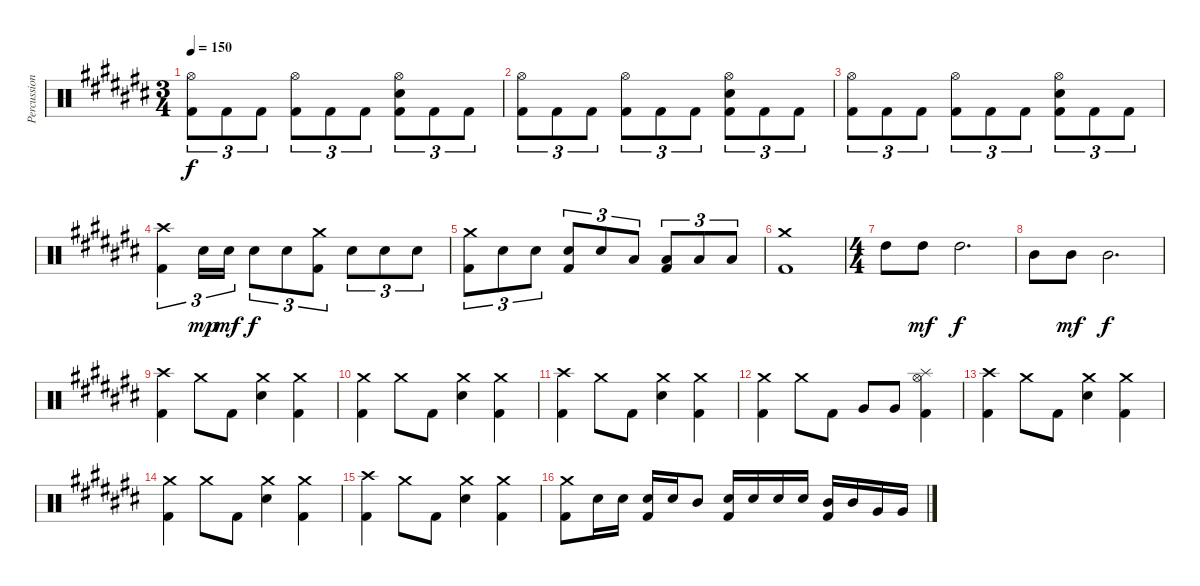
\track ("Percussion" "Percussion") {instrument percussion}
\staff {score}
\articulation defaults
\ts (3 4)
\tempo 150
\clef neutral
\ks c#
("Hi-Hat (open)" "Kick (hit) 2").8{tu (3 2) dy f} "Kick (hit) 2".8{tu (3 2)} "Kick (hit) 2".8{tu (3 2)} ("Hi-Hat (open)" "Kick (hit) 2").8{tu (3 2)} "Kick (hit) 2".8{tu (3 2)} "Kick (hit) 2".8{tu (3 2)} ("Hi-Hat (open)" "Electric Snare (hit)" "Kick (hit) 2").8{tu (3 2)} "Kick (hit) 2".8{tu (3 2)} "Kick (hit) 2".8{tu (3 2)} |
("Hi-Hat (open)" "Kick (hit) 2").8{tu (3 2)} "Kick (hit) 2".8{tu (3 2)} "Kick (hit) 2".8{tu (3 2)} ("Hi-Hat (open)" "Kick (hit) 2").8{tu (3 2)} "Kick (hit) 2".8{tu (3 2)} "Kick (hit) 2".8{tu (3 2)} ("Hi-Hat (open)" "Electric Snare (hit)" "Kick (hit) 2").8{tu (3 2)} "Kick (hit) 2".8{tu (3 2)} "Kick (hit) 2".8{tu (3 2)} |
("Hi-Hat (open)" "Kick (hit) 2").8{tu (3 2)} "Kick (hit) 2".8{tu (3 2)} "Kick (hit) 2".8{tu (3 2)} ("Hi-Hat (open)" "Kick (hit) 2").8{tu (3 2)} "Kick (hit) 2".8{tu (3 2)} "Kick (hit) 2".8{tu (3 2)} ("Hi-Hat (open)" "Electric Snare (hit)" "Kick (hit) 2").8{tu (3 2)} "Kick (hit) 2".8{tu (3 2)} "Kick (hit) 2".8{tu (3 2)} |
("Crash high (hit)" "Kick (hit) 2").4{tu (3 2)} "Electric Snare (hit)".16{tu (3 2) dy mp} "Electric Snare (hit)".16{tu (3 2) dy mf} "Electric Snare (hit)".8{tu (3 2) dy f} "Electric Snare (hit)".8{tu (3 2)} ("Crash medium (hit)" "Kick (hit) 2").8{tu (3 2)} "Electric Snare (hit)".8{tu (3 2)} "Electric Snare (hit)".8{tu (3 2)} "Electric Snare (hit)".8{tu (3 2)} |
("Crash medium (hit)" "Kick (hit) 2").8{tu (3 2)} "Electric Snare (hit)".8{tu (3 2)} "Electric Snare (hit)".8{tu (3 2)} ("Electric Snare (hit)" "Kick (hit) 2").8{tu (3 2)} "Electric Snare (hit)".8{tu (3 2)} "Low Tom (hit)".8{tu (3 2)} ("Low Tom (hit)" "Kick (hit) 2").8{tu (3 2)} "Low Floor Tom (hit)".8{tu (3 2)} "Low Floor Tom (hit)".8{tu (3 2)} |
("Crash medium (hit)" "Kick (hit) 2").1 |
\ts (4 4)
"High Tom (hit)".8 "High Tom (hit)".8{dy mf} "High Tom (hit)".2{d dy f} |
"Mid Tom (hit)".8 "Mid Tom (hit)".8{dy mf} "Mid Tom (hit)".2{d dy f} |
("Crash high (hit)" "Kick (hit) 2").4 "Crash medium (hit)".8 "Kick (hit) 2".8 ("Crash medium (hit)" "Electric Snare (hit)").4 ("Crash medium (hit)" "Kick (hit) 2").4 |
("Crash medium (hit)" "Kick (hit) 2").4 "Crash medium (hit)".8 "Kick (hit) 2".8 ("Crash medium (hit)" "Electric Snare (hit)").4 ("Crash medium (hit)" "Kick (hit) 2").4 |
("Crash high (hit)" "Kick (hit) 2").4 "Crash medium (hit)".8 "Kick (hit) 2".8 ("Crash medium (hit)" "Electric Snare (hit)").4 ("Crash medium (hit)" "Kick (hit) 2").4 |
("Crash medium (hit)" "Kick (hit) 2").4 "Crash medium (hit)".8 "Kick (hit) 2".8 "Very Low Tom (hit)".8 "Very Low Tom (hit)".8 ("Splash (hit)" "Hi-Hat (open)" "Kick (hit) 2").4 |
("Crash high (hit)" "Kick (hit) 2").4 "Crash medium (hit)".8 "Kick (hit) 2".8 ("Crash medium (hit)" "Electric Snare (hit)").4 ("Crash medium (hit)" "Kick (hit) 2").4 |
("Crash medium (hit)" "Kick (hit) 2").4 "Crash medium (hit)".8 "Kick (hit) 2".8 ("Crash medium (hit)" "Electric Snare (hit)").4 ("Crash medium (hit)" "Kick (hit) 2").4 |
("Crash high (hit)" "Kick (hit) 2").4 "Crash medium (hit)".8 "Kick (hit) 2".8 ("Crash medium (hit)" "Electric Snare (hit)").4 ("Crash medium (hit)" "Kick (hit) 2").4 |
("Crash medium (hit)" "Kick (hit) 2").8 "Electric Snare (hit)".16 "Electric Snare (hit)".16 ("Electric Snare (hit)" "Kick (hit) 2").16 "Electric Snare (hit)".16 "Mid Tom (hit)".8 ("Electric Snare (hit)" "Kick (hit) 2").16 "Electric Snare (hit)".16 "Electric Snare (hit)".16 "Electric Snare (hit)".16 ("Mid Tom (hit)" "Kick (hit) 2").16 "Mid Tom (hit)".16 "Very Low Tom (hit)".16 "Very Low Tom (hit)".16
